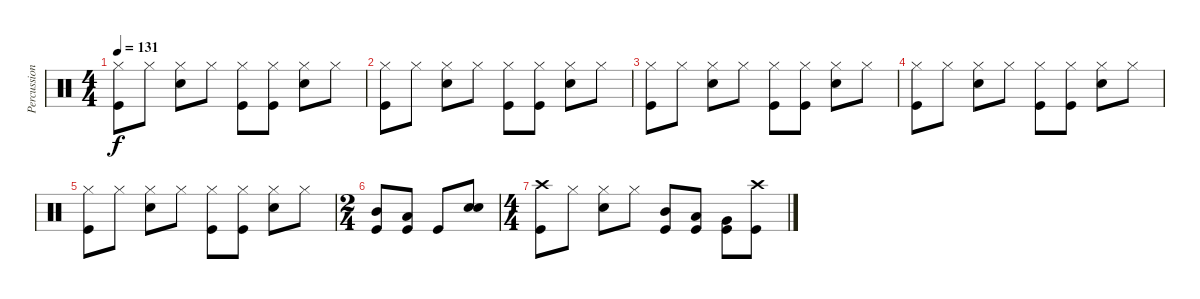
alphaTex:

\track ("Percussions" "Percussion") {instrument percussion}
\staff {score}
\articulation defaults
\ts (4 4)
\tempo 131
\clef neutral
\ks c
("Hi-Hat (closed)" "Kick (hit)").8{dy f} "Hi-Hat (closed)".8 ("Hi-Hat (closed)" "Electric Snare (hit)").8 "Hi-Hat (closed)".8 ("Hi-Hat (closed)" "Kick (hit)").8 ("Hi-Hat (closed)" "Kick (hit)").8 ("Hi-Hat (closed)" "Electric Snare (hit)").8 "Hi-Hat (closed)".8 |
("Hi-Hat (closed)" "Kick (hit)").8 "Hi-Hat (closed)".8 ("Hi-Hat (closed)" "Electric Snare (hit)").8 "Hi-Hat (closed)".8 ("Hi-Hat (closed)" "Kick (hit)").8 ("Hi-Hat (closed)" "Kick (hit)").8 ("Hi-Hat (closed)" "Electric Snare (hit)").8 "Hi-Hat (closed)".8 |
("Hi-Hat (closed)" "Kick (hit)").8 "Hi-Hat (closed)".8 ("Hi-Hat (closed)" "Electric Snare (hit)").8 "Hi-Hat (closed)".8 ("Hi-Hat (closed)" "Kick (hit)").8 ("Hi-Hat (closed)" "Kick (hit)").8 ("Hi-Hat (closed)" "Electric Snare (hit)").8 "Hi-Hat (closed)".8 |
("Hi-Hat (closed)" "Kick (hit)").8 "Hi-Hat (closed)".8 ("Hi-Hat (closed)" "Electric Snare (hit)").8 "Hi-Hat (closed)".8 ("Hi-Hat (closed)" "Kick (hit)").8 ("Hi-Hat (closed)" "Kick (hit)").8 ("Hi-Hat (closed)" "Electric Snare (hit)").8 "Hi-Hat (closed)".8 |
("Hi-Hat (closed)" "Kick (hit)").8 "Hi-Hat (closed)".8 ("Hi-Hat (closed)" "Electric Snare (hit)").8 "Hi-Hat (closed)".8 ("Hi-Hat (closed)" "Kick (hit)").8 ("Hi-Hat (closed)" "Kick (hit)").8 ("Hi-Hat (closed)" "Electric Snare (hit)").8 "Hi-Hat (closed)".8 |
\ts (2 4)
("Mid Tom (hit)" "Kick (hit)").8 ("Low Tom (hit)" "Kick (hit)").8 "Kick (hit)".8 ("Electric Snare (hit)" "Electric Snare (hit)").8{bd 120} |
\ts (4 4)
("Crash high (hit)" "Kick (hit)").8 "Hi-Hat (closed)".8 ("Hi-Hat (closed)" "Electric Snare (hit)").8 "Hi-Hat (closed)".8 ("Mid Tom (hit)" "Kick (hit)").8 ("Low Tom (hit)" "Kick (hit)").8 ("Very Low Tom (hit)" "Kick (hit)").8 ("Crash high (hit)" "Kick (hit)").8
